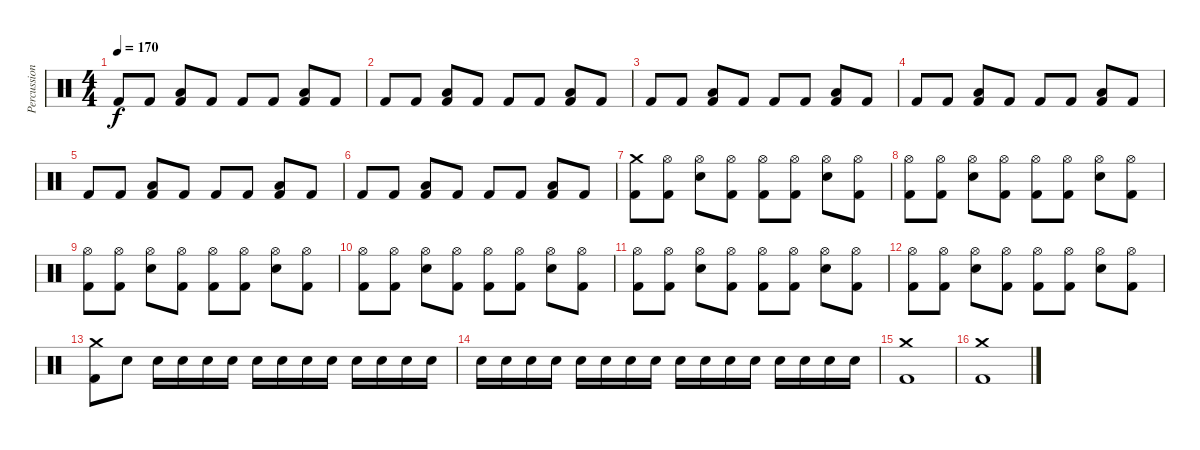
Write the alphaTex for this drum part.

\track ("Percussion" "Percussion") {instrument percussion}
\staff {score}
\articulation defaults
\ts (4 4)
\tempo 170
\clef neutral
\ks c "Kick (hit) 2".8{dy f} "Kick (hit) 2".8
("Low Floor Tom (hit)" "Kick (hit) 2").8 "Kick (hit) 2".8 "Kick (hit) 2".8 "Kick (hit) 2".8 ("Low Floor Tom (hit)" "Kick (hit) 2").8 "Kick (hit) 2".8 |
"Kick (hit) 2".8 "Kick (hit) 2".8 ("Low Floor Tom (hit)" "Kick (hit) 2").8 "Kick (hit) 2".8 "Kick (hit) 2".8 "Kick (hit) 2".8 ("Low Floor Tom (hit)" "Kick (hit) 2").8 "Kick (hit) 2".8 |
"Kick (hit) 2".8 "Kick (hit) 2".8 ("Low Floor Tom (hit)" "Kick (hit) 2").8 "Kick (hit) 2".8 "Kick (hit) 2".8 "Kick (hit) 2".8 ("Low Floor Tom (hit)" "Kick (hit) 2").8 "Kick (hit) 2".8 |
"Kick (hit) 2".8 "Kick (hit) 2".8 ("Low Floor Tom (hit)" "Kick (hit) 2").8 "Kick (hit) 2".8 "Kick (hit) 2".8 "Kick (hit) 2".8 ("Low Floor Tom (hit)" "Kick (hit) 2").8 "Kick (hit) 2".8 |
"Kick (hit) 2".8 "Kick (hit) 2".8 ("Low Floor Tom (hit)" "Kick (hit) 2").8 "Kick (hit) 2".8 "Kick (hit) 2".8 "Kick (hit) 2".8 ("Low Floor Tom (hit)" "Kick (hit) 2").8 "Kick (hit) 2".8 |
"Kick (hit) 2".8 "Kick (hit) 2".8 ("Low Floor Tom (hit)" "Kick (hit) 2").8 "Kick (hit) 2".8 "Kick (hit) 2".8 "Kick (hit) 2".8 ("Low Floor Tom (hit)" "Kick (hit) 2").8 "Kick (hit) 2".8 |
("Crash medium (hit)" "Kick (hit) 2").8 ("Hi-Hat (open)" "Kick (hit) 2").8 ("Hi-Hat (open)" "Snare (hit) 2").8 ("Hi-Hat (open)" "Kick (hit) 2").8 ("Hi-Hat (open)" "Kick (hit) 2").8 ("Hi-Hat (open)" "Kick (hit) 2").8 ("Hi-Hat (open)" "Snare (hit) 2").8 ("Hi-Hat (open)" "Kick (hit) 2").8 |
("Hi-Hat (open)" "Kick (hit) 2").8 ("Hi-Hat (open)" "Kick (hit) 2").8 ("Hi-Hat (open)" "Snare (hit) 2").8 ("Hi-Hat (open)" "Kick (hit) 2").8 ("Hi-Hat (open)" "Kick (hit) 2").8 ("Hi-Hat (open)" "Kick (hit) 2").8 ("Hi-Hat (open)" "Snare (hit) 2").8 ("Hi-Hat (open)" "Kick (hit) 2").8 |
("Hi-Hat (open)" "Kick (hit) 2").8 ("Hi-Hat (open)" "Kick (hit) 2").8 ("Hi-Hat (open)" "Snare (hit) 2").8 ("Hi-Hat (open)" "Kick (hit) 2").8 ("Hi-Hat (open)" "Kick (hit) 2").8 ("Hi-Hat (open)" "Kick (hit) 2").8 ("Hi-Hat (open)" "Snare (hit) 2").8 ("Hi-Hat (open)" "Kick (hit) 2").8 |
("Hi-Hat (open)" "Kick (hit) 2").8 ("Hi-Hat (open)" "Kick (hit) 2").8 ("Hi-Hat (open)" "Snare (hit) 2").8 ("Hi-Hat (open)" "Kick (hit) 2").8 ("Hi-Hat (open)" "Kick (hit) 2").8 ("Hi-Hat (open)" "Kick (hit) 2").8 ("Hi-Hat (open)" "Snare (hit) 2").8 ("Hi-Hat (open)" "Kick (hit) 2").8 |
("Hi-Hat (open)" "Kick (hit) 2").8 ("Hi-Hat (open)" "Kick (hit) 2").8 ("Hi-Hat (open)" "Snare (hit) 2").8 ("Hi-Hat (open)" "Kick (hit) 2").8 ("Hi-Hat (open)" "Kick (hit) 2").8 ("Hi-Hat (open)" "Kick (hit) 2").8 ("Hi-Hat (open)" "Snare (hit) 2").8 ("Hi-Hat (open)" "Kick (hit) 2").8 |
("Hi-Hat (open)" "Kick (hit) 2").8 ("Hi-Hat (open)" "Kick (hit) 2").8 ("Hi-Hat (open)" "Snare (hit) 2").8 ("Hi-Hat (open)" "Kick (hit) 2").8 ("Hi-Hat (open)" "Kick (hit) 2").8 ("Hi-Hat (open)" "Kick (hit) 2").8 ("Hi-Hat (open)" "Snare (hit) 2").8 ("Hi-Hat (open)" "Kick (hit) 2").8 |
("Crash medium (hit)" "Kick (hit) 2").8 "Snare (hit) 2".8 "Snare (hit) 2".16 "Snare (hit) 2".16 "Snare (hit) 2".16 "Snare (hit) 2".16 "Snare (hit) 2".16 "Snare (hit) 2".16 "Snare (hit) 2".16 "Snare (hit) 2".16 "Snare (hit) 2".16 "Snare (hit) 2".16 "Snare (hit) 2".16 "Snare (hit) 2".16 |
"Snare (hit) 2".16 "Snare (hit) 2".16 "Snare (hit) 2".16 "Snare (hit) 2".16 "Snare (hit) 2".16 "Snare (hit) 2".16 "Snare (hit) 2".16 "Snare (hit) 2".16 "Snare (hit) 2".16 "Snare (hit) 2".16 "Snare (hit) 2".16 "Snare (hit) 2".16 "Snare (hit) 2".16 "Snare (hit) 2".16 "Snare (hit) 2".16 "Snare (hit) 2".16 |
("Crash medium (hit)" "Kick (hit) 2").1 |
("Crash medium (hit)" "Kick (hit) 2").1
